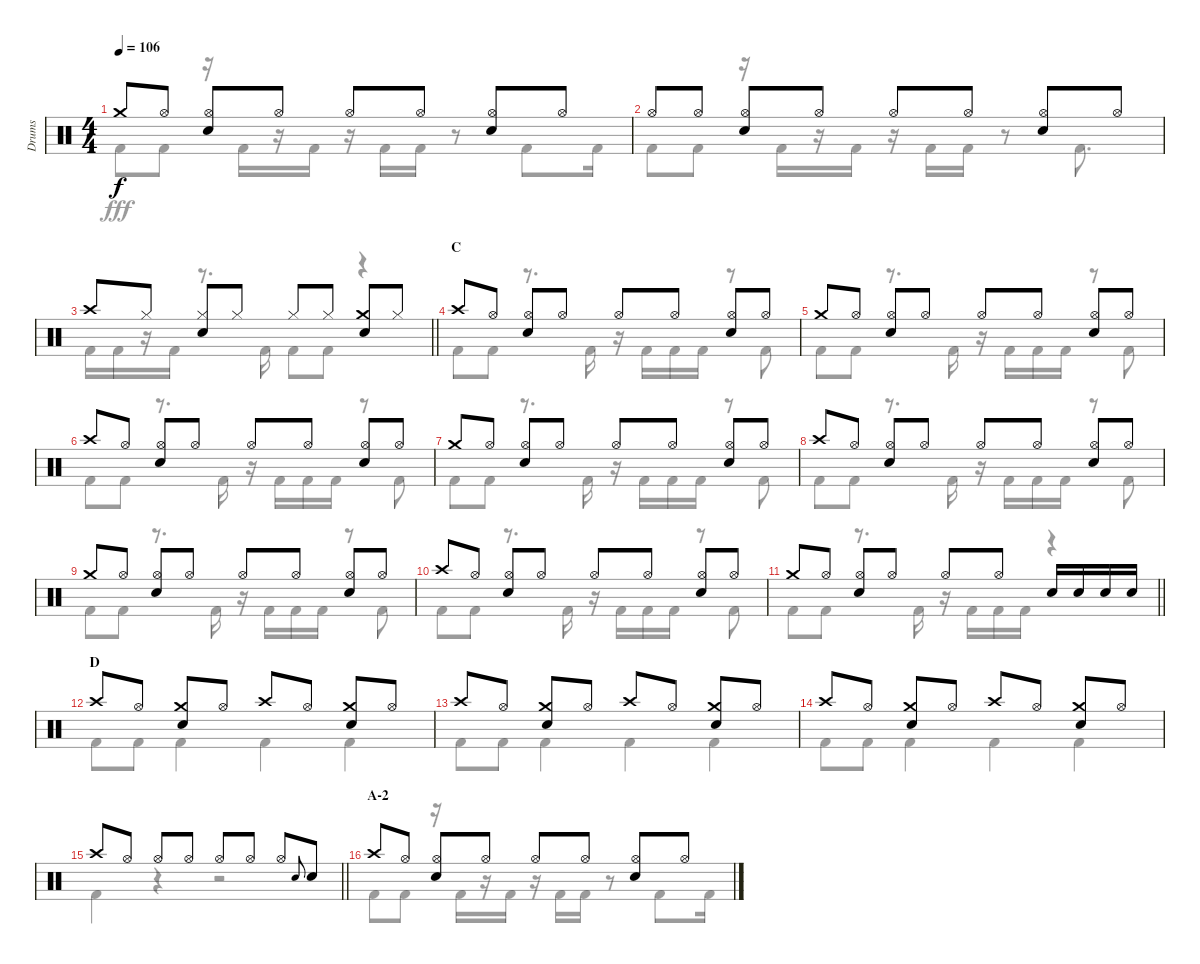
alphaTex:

\track ("Drums" "Drums") {instrument percussion}
\staff {score}
\articulation defaults
\voice
\ts (4 4)
\tempo 106
\clef neutral
\ks c "Crash medium (hit)".8{dy f} "Hi-Hat (open)".8
("Hi-Hat (open)" "Snare (hit) 2").8 "Hi-Hat (open)".8 "Hi-Hat (open)".8 "Hi-Hat (open)".8 ("Hi-Hat (open)" "Snare (hit) 2").8 "Hi-Hat (open)".8 |
"Hi-Hat (open)".8 "Hi-Hat (open)".8 ("Hi-Hat (open)" "Snare (hit) 2").8 "Hi-Hat (open)".8 "Hi-Hat (open)".8 "Hi-Hat (open)".8 ("Hi-Hat (open)" "Snare (hit) 2").8 "Hi-Hat (open)".8 |
\barLineRight lightlight "Crash high (hit)".8 "Hi-Hat (closed)".8
("Hi-Hat (closed)" "Snare (hit) 2").8 "Hi-Hat (closed)".8 "Hi-Hat (closed)".8 "Hi-Hat (closed)".8 ("Crash medium (hit)" "Snare (hit) 2").8 "Hi-Hat (closed)".8 |
\section ("" "C")
"Crash high (hit)".8 "Hi-Hat (open)".8 ("Hi-Hat (open)" "Snare (hit) 2").8 "Hi-Hat (open)".8 "Hi-Hat (open)".8 "Hi-Hat (open)".8 ("Hi-Hat (open)" "Snare (hit) 2").8 "Hi-Hat (open)".8 |
"Crash medium (hit)".8 "Hi-Hat (open)".8 ("Hi-Hat (open)" "Snare (hit) 2").8 "Hi-Hat (open)".8 "Hi-Hat (open)".8 "Hi-Hat (open)".8 ("Hi-Hat (open)" "Snare (hit) 2").8 "Hi-Hat (open)".8 |
"Crash high (hit)".8 "Hi-Hat (open)".8 ("Hi-Hat (open)" "Snare (hit) 2").8 "Hi-Hat (open)".8 "Hi-Hat (open)".8 "Hi-Hat (open)".8 ("Hi-Hat (open)" "Snare (hit) 2").8 "Hi-Hat (open)".8 |
"Crash medium (hit)".8 "Hi-Hat (open)".8 ("Hi-Hat (open)" "Snare (hit) 2").8 "Hi-Hat (open)".8 "Hi-Hat (open)".8 "Hi-Hat (open)".8 ("Hi-Hat (open)" "Snare (hit) 2").8 "Hi-Hat (open)".8 |
"Crash high (hit)".8 "Hi-Hat (open)".8 ("Hi-Hat (open)" "Snare (hit) 2").8 "Hi-Hat (open)".8 "Hi-Hat (open)".8 "Hi-Hat (open)".8 ("Hi-Hat (open)" "Snare (hit) 2").8 "Hi-Hat (open)".8 |
"Crash medium (hit)".8 "Hi-Hat (open)".8 ("Hi-Hat (open)" "Snare (hit) 2").8 "Hi-Hat (open)".8 "Hi-Hat (open)".8 "Hi-Hat (open)".8 ("Hi-Hat (open)" "Snare (hit) 2").8 "Hi-Hat (open)".8 |
"Crash high (hit)".8 "Hi-Hat (open)".8 ("Hi-Hat (open)" "Snare (hit) 2").8 "Hi-Hat (open)".8 "Hi-Hat (open)".8 "Hi-Hat (open)".8 ("Hi-Hat (open)" "Snare (hit) 2").8 "Hi-Hat (open)".8 |
\barLineRight lightlight "Crash medium (hit)".8 "Hi-Hat (open)".8
("Hi-Hat (open)" "Snare (hit) 2").8 "Hi-Hat (open)".8 "Hi-Hat (open)".8 "Hi-Hat (open)".8 "Snare (hit) 2".16 "Snare (hit) 2".16 "Snare (hit) 2".16 "Snare (hit) 2".16 |
\section ("" "D")
"Crash high (hit)".8 "Hi-Hat (open)".8 ("Crash medium (hit)" "Snare (hit) 2").8 "Hi-Hat (open)".8 "Crash high (hit)".8 "Hi-Hat (open)".8 ("Crash medium (hit)" "Snare (hit) 2").8 "Hi-Hat (open)".8 |
"Crash high (hit)".8 "Hi-Hat (open)".8 ("Crash medium (hit)" "Snare (hit) 2").8 "Hi-Hat (open)".8 "Crash high (hit)".8 "Hi-Hat (open)".8 ("Crash medium (hit)" "Snare (hit) 2").8 "Hi-Hat (open)".8 |
"Crash high (hit)".8 "Hi-Hat (open)".8 ("Crash medium (hit)" "Snare (hit) 2").8 "Hi-Hat (open)".8 "Crash high (hit)".8 "Hi-Hat (open)".8 ("Crash medium (hit)" "Snare (hit) 2").8 "Hi-Hat (open)".8 |
\barLineRight lightlight "Crash high (hit)".8 "Hi-Hat (open)".8 "Hi-Hat (open)".8 "Hi-Hat (open)".8 "Hi-Hat (open)".8 "Hi-Hat (open)".8 "Hi-Hat (open)".8 "Snare (hit) 2".8{gr onbeat} "Snare (hit) 2".8
|
\section ("" "A-2")
"Crash high (hit)".8 "Hi-Hat (open)".8 ("Hi-Hat (open)" "Snare (hit) 2").8 "Hi-Hat (open)".8 "Hi-Hat (open)".8 "Hi-Hat (open)".8 ("Hi-Hat (open)" "Snare (hit) 2").8 "Hi-Hat (open)".8
\voice
\clef neutral
\ottava regular
\simile none
\ks c "Kick (hit) 2".8{dy fff} "Kick (hit) 2".8
r.16 "Kick (hit) 2".16 r.16 "Kick (hit) 2".16 r.16 "Kick (hit) 2".16 "Kick (hit) 2".16 r.8 "Kick (hit) 2".8 "Kick (hit) 2".16 |
"Kick (hit) 2".8 "Kick (hit) 2".8 r.16 "Kick (hit) 2".16 r.16 "Kick (hit) 2".16 r.16 "Kick (hit) 2".16 "Kick (hit) 2".16 r.8 "Kick (hit) 2".8{d} |
\barLineRight lightlight "Kick (hit) 2".16 "Kick (hit) 2".16
r.16 "Kick (hit) 2".16 r.8{d} "Kick (hit) 2".16 "Kick (hit) 2".8 "Kick (hit) 2".8 r.4 |
"Kick (hit) 2".8 "Kick (hit) 2".8 r.8{d} "Kick (hit) 2".16 r.16 "Kick (hit) 2".16 "Kick (hit) 2".16 "Kick (hit) 2".16 r.8 "Kick (hit) 2".8 |
"Kick (hit) 2".8 "Kick (hit) 2".8 r.8{d} "Kick (hit) 2".16 r.16 "Kick (hit) 2".16 "Kick (hit) 2".16 "Kick (hit) 2".16 r.8 "Kick (hit) 2".8 |
"Kick (hit) 2".8 "Kick (hit) 2".8 r.8{d} "Kick (hit) 2".16 r.16 "Kick (hit) 2".16 "Kick (hit) 2".16 "Kick (hit) 2".16 r.8 "Kick (hit) 2".8 |
"Kick (hit) 2".8 "Kick (hit) 2".8 r.8{d} "Kick (hit) 2".16 r.16 "Kick (hit) 2".16 "Kick (hit) 2".16 "Kick (hit) 2".16 r.8 "Kick (hit) 2".8 |
"Kick (hit) 2".8 "Kick (hit) 2".8 r.8{d} "Kick (hit) 2".16 r.16 "Kick (hit) 2".16 "Kick (hit) 2".16 "Kick (hit) 2".16 r.8 "Kick (hit) 2".8 |
"Kick (hit) 2".8 "Kick (hit) 2".8 r.8{d} "Kick (hit) 2".16 r.16 "Kick (hit) 2".16 "Kick (hit) 2".16 "Kick (hit) 2".16 r.8 "Kick (hit) 2".8 |
"Kick (hit) 2".8 "Kick (hit) 2".8 r.8{d} "Kick (hit) 2".16 r.16 "Kick (hit) 2".16 "Kick (hit) 2".16 "Kick (hit) 2".16 r.8 "Kick (hit) 2".8 |
\barLineRight lightlight "Kick (hit) 2".8 "Kick (hit) 2".8
r.8{d} "Kick (hit) 2".16 r.16 "Kick (hit) 2".16 "Kick (hit) 2".16 "Kick (hit) 2".16 r.4 |
"Kick (hit) 2".8 "Kick (hit) 2".8 "Kick (hit) 2".4 "Kick (hit) 2".4 "Kick (hit) 2".4 |
"Kick (hit) 2".8 "Kick (hit) 2".8 "Kick (hit) 2".4 "Kick (hit) 2".4 "Kick (hit) 2".4 |
"Kick (hit) 2".8 "Kick (hit) 2".8 "Kick (hit) 2".4 "Kick (hit) 2".4 "Kick (hit) 2".4 |
\barLineRight lightlight "Kick (hit) 2".4
r.4 r.2 |
"Kick (hit) 2".8 "Kick (hit) 2".8 r.16 "Kick (hit) 2".16 r.16 "Kick (hit) 2".16 r.16 "Kick (hit) 2".16 "Kick (hit) 2".16 r.8 "Kick (hit) 2".8 "Kick (hit) 2".16
